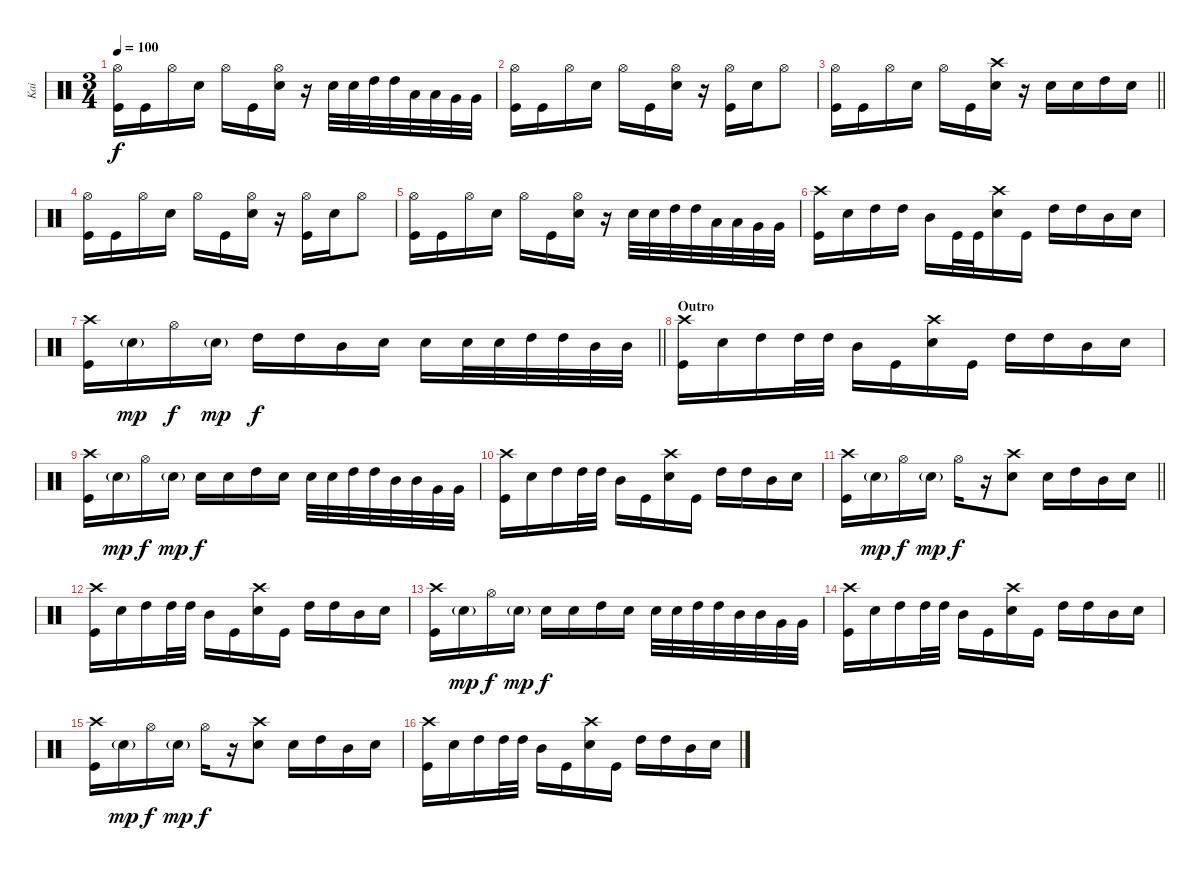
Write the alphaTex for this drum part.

\track ("Kai" "Kai") {instrument percussion}
\staff {score}
\articulation defaults
\ts (3 4)
\tempo 100
\clef neutral
\ks c
("Hi-Hat (open)" "Kick (hit)").16{dy f} "Kick (hit)".16 "Hi-Hat (open)".16 "Snare (hit) 2".16 "Hi-Hat (open)".16 "Kick (hit)".16 ("Hi-Hat (open)" "Snare (hit) 2").16 r.16 "Snare (hit) 2".32 "Snare (hit) 2".32 "High Tom (hit)".32 "High Tom (hit)".32 "Low Tom (hit)".32 "Low Tom (hit)".32 "Very Low Tom (hit)".32 "Very Low Tom (hit)".32 |
("Hi-Hat (open)" "Kick (hit)").16 "Kick (hit)".16 "Hi-Hat (open)".16 "Snare (hit) 2".16 "Hi-Hat (open)".16 "Kick (hit)".16 ("Hi-Hat (open)" "Snare (hit) 2").16 r.16 ("Hi-Hat (open)" "Kick (hit)").16 "Snare (hit) 2".16 "Hi-Hat (open)".8 |
\barLineRight lightlight
("Hi-Hat (open)" "Kick (hit)").16 "Kick (hit)".16 "Hi-Hat (open)".16 "Snare (hit) 2".16 "Hi-Hat (open)".16 "Kick (hit)".16 ("Crash high (hit)" "Snare (hit) 2").16 r.16 "Snare (hit) 2".16 "Snare (hit) 2".16 "High Tom (hit)".16 "Snare (hit) 2".16 |
("Hi-Hat (open)" "Kick (hit)").16 "Kick (hit)".16 "Hi-Hat (open)".16 "Snare (hit) 2".16 "Hi-Hat (open)".16 "Kick (hit)".16 ("Hi-Hat (open)" "Snare (hit) 2").16 r.16 ("Hi-Hat (open)" "Kick (hit)").16 "Snare (hit) 2".16 "Hi-Hat (open)".8 |
("Hi-Hat (open)" "Kick (hit)").16 "Kick (hit)".16 "Hi-Hat (open)".16 "Snare (hit) 2".16 "Hi-Hat (open)".16 "Kick (hit)".16 ("Hi-Hat (open)" "Snare (hit) 2").16 r.16 "Snare (hit) 2".32 "Snare (hit) 2".32 "High Tom (hit)".32 "High Tom (hit)".32 "Low Tom (hit)".32 "Low Tom (hit)".32 "Very Low Tom (hit)".32 "Very Low Tom (hit)".32 |
("Crash high (hit)" "Kick (hit)").16 "Snare (hit) 2".16 "High Tom (hit)".16 "High Tom (hit)".16 "Mid Tom (hit)".16 "Kick (hit)".32 "Kick (hit)".32 ("Crash high (hit)" "Snare (hit) 2").16 "Kick (hit)".16 "High Tom (hit)".16 "High Tom (hit)".16 "Mid Tom (hit)".16 "Snare (hit) 2".16 |
\barLineRight lightlight
("Crash high (hit)" "Kick (hit)").16 "Snare (hit) 2"{g}.16{dy mp} "Hi-Hat (open)".16{dy f} "Snare (hit) 2"{g}.16{dy mp} "High Tom (hit)".16{dy f} "High Tom (hit)".16 "Mid Tom (hit)".16 "Snare (hit) 2".16 "Snare (hit) 2".16 "Snare (hit) 2".32 "Snare (hit) 2".32 "High Tom (hit)".32 "High Tom (hit)".32 "Mid Tom (hit)".32 "Mid Tom (hit)".32 |
\section ("" "Outro")
("Crash high (hit)" "Kick (hit)").16 "Snare (hit) 2".16 "High Tom (hit)".16 "High Tom (hit)".32 "High Tom (hit)".32 "Mid Tom (hit)".16 "Kick (hit)".16 ("Crash high (hit)" "Snare (hit) 2").16 "Kick (hit)".16 "High Tom (hit)".16 "High Tom (hit)".16 "Mid Tom (hit)".16 "Snare (hit) 2".16 |
("Crash high (hit)" "Kick (hit)").16 "Snare (hit) 2"{g}.16{dy mp} "Hi-Hat (open)".16{dy f} "Snare (hit) 2"{g}.16{dy mp} "Snare (hit) 2".16{dy f} "Snare (hit) 2".16 "High Tom (hit)".16 "Snare (hit) 2".16 "Snare (hit) 2".32 "Snare (hit) 2".32 "High Tom (hit)".32 "High Tom (hit)".32 "Mid Tom (hit)".32 "Mid Tom (hit)".32 "Very Low Tom (hit)".32 "Very Low Tom (hit)".32 |
("Crash high (hit)" "Kick (hit)").16 "Snare (hit) 2".16 "High Tom (hit)".16 "High Tom (hit)".32 "High Tom (hit)".32 "Mid Tom (hit)".16 "Kick (hit)".16 ("Crash high (hit)" "Snare (hit) 2").16 "Kick (hit)".16 "High Tom (hit)".16 "High Tom (hit)".16 "Mid Tom (hit)".16 "Snare (hit) 2".16 |
\barLineRight lightlight
("Crash high (hit)" "Kick (hit)").16 "Snare (hit) 2"{g}.16{dy mp} "Hi-Hat (open)".16{dy f} "Snare (hit) 2"{g}.16{dy mp} "Hi-Hat (open)".16{dy f} r.16 ("Crash high (hit)" "Snare (hit) 2").8 "Snare (hit) 2".16 "High Tom (hit)".16 "Mid Tom (hit)".16 "Snare (hit) 2".16 |
("Crash high (hit)" "Kick (hit)").16 "Snare (hit) 2".16 "High Tom (hit)".16 "High Tom (hit)".32 "High Tom (hit)".32 "Mid Tom (hit)".16 "Kick (hit)".16 ("Crash high (hit)" "Snare (hit) 2").16 "Kick (hit)".16 "High Tom (hit)".16 "High Tom (hit)".16 "Mid Tom (hit)".16 "Snare (hit) 2".16 |
("Crash high (hit)" "Kick (hit)").16 "Snare (hit) 2"{g}.16{dy mp} "Hi-Hat (open)".16{dy f} "Snare (hit) 2"{g}.16{dy mp} "Snare (hit) 2".16{dy f} "Snare (hit) 2".16 "High Tom (hit)".16 "Snare (hit) 2".16 "Snare (hit) 2".32 "Snare (hit) 2".32 "High Tom (hit)".32 "High Tom (hit)".32 "Mid Tom (hit)".32 "Mid Tom (hit)".32 "Very Low Tom (hit)".32 "Very Low Tom (hit)".32 |
("Crash high (hit)" "Kick (hit)").16 "Snare (hit) 2".16 "High Tom (hit)".16 "High Tom (hit)".32 "High Tom (hit)".32 "Mid Tom (hit)".16 "Kick (hit)".16 ("Crash high (hit)" "Snare (hit) 2").16 "Kick (hit)".16 "High Tom (hit)".16 "High Tom (hit)".16 "Mid Tom (hit)".16 "Snare (hit) 2".16 |
("Crash high (hit)" "Kick (hit)").16 "Snare (hit) 2"{g}.16{dy mp} "Hi-Hat (open)".16{dy f} "Snare (hit) 2"{g}.16{dy mp} "Hi-Hat (open)".16{dy f} r.16 ("Crash high (hit)" "Snare (hit) 2").8 "Snare (hit) 2".16 "High Tom (hit)".16 "Mid Tom (hit)".16 "Snare (hit) 2".16 |
("Crash high (hit)" "Kick (hit)").16 "Snare (hit) 2".16 "High Tom (hit)".16 "High Tom (hit)".32 "High Tom (hit)".32 "Mid Tom (hit)".16 "Kick (hit)".16 ("Crash high (hit)" "Snare (hit) 2").16 "Kick (hit)".16 "High Tom (hit)".16 "High Tom (hit)".16 "Mid Tom (hit)".16 "Snare (hit) 2".16
